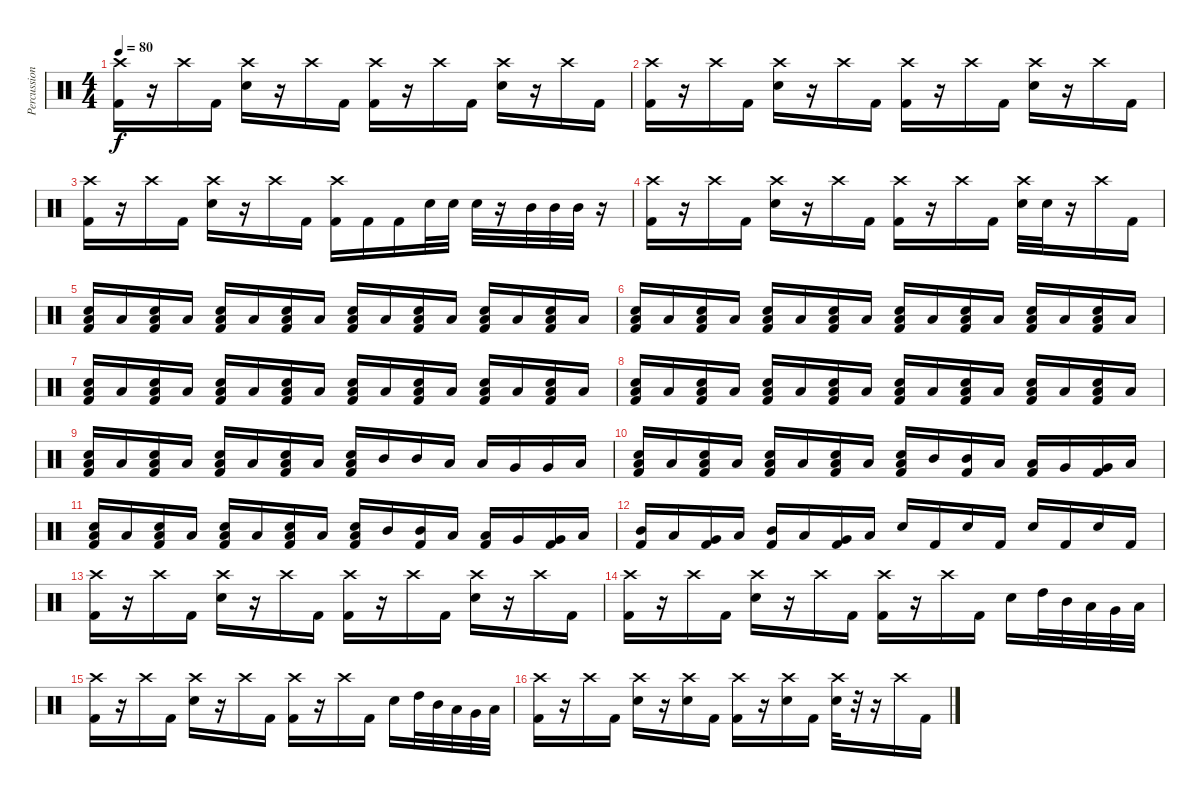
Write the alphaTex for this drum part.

\track ("Percussion" "Percussion") {instrument percussion}
\staff {score}
\articulation defaults
\ts (4 4)
\tempo 80
\clef neutral
\ks c
("Crash high (hit)" "Kick (hit) 2").16{dy f} r.16 "Crash high (hit)".16 "Kick (hit) 2".16 ("Crash high (hit)" "Electric Snare (hit)").16 r.16 "Crash high (hit)".16 "Kick (hit) 2".16 ("Crash high (hit)" "Kick (hit) 2").16 r.16 "Crash high (hit)".16 "Kick (hit) 2".16 ("Crash high (hit)" "Electric Snare (hit)").16 r.16 "Crash high (hit)".16 "Kick (hit) 2".16 |
("Crash high (hit)" "Kick (hit) 2").16 r.16 "Crash high (hit)".16 "Kick (hit) 2".16 ("Crash high (hit)" "Electric Snare (hit)").16 r.16 "Crash high (hit)".16 "Kick (hit) 2".16 ("Crash high (hit)" "Kick (hit) 2").16 r.16 "Crash high (hit)".16 "Kick (hit) 2".16 ("Crash high (hit)" "Electric Snare (hit)").16 r.16 "Crash high (hit)".16 "Kick (hit) 2".16 |
("Crash high (hit)" "Kick (hit) 2").16 r.16 "Crash high (hit)".16 "Kick (hit) 2".16 ("Crash high (hit)" "Electric Snare (hit)").16 r.16 "Crash high (hit)".16 "Kick (hit) 2".16 ("Crash high (hit)" "Kick (hit) 2").16 "Kick (hit) 2".16 "Kick (hit) 2".16 "Electric Snare (hit)".32 "Electric Snare (hit)".32 "Electric Snare (hit)".32 r.16 "Mid Tom (hit)".32 "Mid Tom (hit)".32 "Mid Tom (hit)".32 r.16 |
("Crash high (hit)" "Kick (hit) 2").16 r.16 "Crash high (hit)".16 "Kick (hit) 2".16 ("Crash high (hit)" "Electric Snare (hit)").16 r.16 "Crash high (hit)".16 "Kick (hit) 2".16 ("Crash high (hit)" "Kick (hit) 2").16 r.16 "Crash high (hit)".16 "Kick (hit) 2".16 ("Crash high (hit)" "Electric Snare (hit)").32 "Electric Snare (hit)".32 r.16 "Crash high (hit)".16 "Kick (hit) 2".16 |
("Low Floor Tom (hit)" "Electric Snare (hit)" "Kick (hit) 2").16 "Low Floor Tom (hit)".16 ("Low Floor Tom (hit)" "Electric Snare (hit)" "Kick (hit) 2").16 "Low Floor Tom (hit)".16 ("Low Floor Tom (hit)" "Electric Snare (hit)" "Kick (hit) 2").16 "Low Floor Tom (hit)".16 ("Low Floor Tom (hit)" "Electric Snare (hit)" "Kick (hit) 2").16 "Low Floor Tom (hit)".16 ("Low Floor Tom (hit)" "Electric Snare (hit)" "Kick (hit) 2").16 "Low Floor Tom (hit)".16 ("Low Floor Tom (hit)" "Electric Snare (hit)" "Kick (hit) 2").16 "Low Floor Tom (hit)".16 ("Low Floor Tom (hit)" "Electric Snare (hit)" "Kick (hit) 2").16 "Low Floor Tom (hit)".16 ("Low Floor Tom (hit)" "Electric Snare (hit)" "Kick (hit) 2").16 "Low Floor Tom (hit)".16 |
("Low Floor Tom (hit)" "Electric Snare (hit)" "Kick (hit) 2").16 "Low Floor Tom (hit)".16 ("Low Floor Tom (hit)" "Electric Snare (hit)" "Kick (hit) 2").16 "Low Floor Tom (hit)".16 ("Low Floor Tom (hit)" "Electric Snare (hit)" "Kick (hit) 2").16 "Low Floor Tom (hit)".16 ("Low Floor Tom (hit)" "Electric Snare (hit)" "Kick (hit) 2").16 "Low Floor Tom (hit)".16 ("Low Floor Tom (hit)" "Electric Snare (hit)" "Kick (hit) 2").16 "Low Floor Tom (hit)".16 ("Low Floor Tom (hit)" "Electric Snare (hit)" "Kick (hit) 2").16 "Low Floor Tom (hit)".16 ("Low Floor Tom (hit)" "Electric Snare (hit)" "Kick (hit) 2").16 "Low Floor Tom (hit)".16 ("Low Floor Tom (hit)" "Electric Snare (hit)" "Kick (hit) 2").16 "Low Floor Tom (hit)".16 |
("Low Floor Tom (hit)" "Electric Snare (hit)" "Kick (hit) 2").16 "Low Floor Tom (hit)".16 ("Low Floor Tom (hit)" "Electric Snare (hit)" "Kick (hit) 2").16 "Low Floor Tom (hit)".16 ("Low Floor Tom (hit)" "Electric Snare (hit)" "Kick (hit) 2").16 "Low Floor Tom (hit)".16 ("Low Floor Tom (hit)" "Electric Snare (hit)" "Kick (hit) 2").16 "Low Floor Tom (hit)".16 ("Low Floor Tom (hit)" "Electric Snare (hit)" "Kick (hit) 2").16 "Low Floor Tom (hit)".16 ("Low Floor Tom (hit)" "Electric Snare (hit)" "Kick (hit) 2").16 "Low Floor Tom (hit)".16 ("Low Floor Tom (hit)" "Electric Snare (hit)" "Kick (hit) 2").16 "Low Floor Tom (hit)".16 ("Low Floor Tom (hit)" "Electric Snare (hit)" "Kick (hit) 2").16 "Low Floor Tom (hit)".16 |
("Low Floor Tom (hit)" "Electric Snare (hit)" "Kick (hit) 2").16 "Low Floor Tom (hit)".16 ("Low Floor Tom (hit)" "Electric Snare (hit)" "Kick (hit) 2").16 "Low Floor Tom (hit)".16 ("Low Floor Tom (hit)" "Electric Snare (hit)" "Kick (hit) 2").16 "Low Floor Tom (hit)".16 ("Low Floor Tom (hit)" "Electric Snare (hit)" "Kick (hit) 2").16 "Low Floor Tom (hit)".16 ("Low Floor Tom (hit)" "Electric Snare (hit)" "Kick (hit) 2").16 "Low Floor Tom (hit)".16 ("Low Floor Tom (hit)" "Electric Snare (hit)" "Kick (hit) 2").16 "Low Floor Tom (hit)".16 ("Low Floor Tom (hit)" "Electric Snare (hit)" "Kick (hit) 2").16 "Low Floor Tom (hit)".16 ("Low Floor Tom (hit)" "Electric Snare (hit)" "Kick (hit) 2").16 "Low Floor Tom (hit)".16 |
("Low Floor Tom (hit)" "Electric Snare (hit)" "Kick (hit) 2").16 "Low Floor Tom (hit)".16 ("Low Floor Tom (hit)" "Electric Snare (hit)" "Kick (hit) 2").16 "Low Floor Tom (hit)".16 ("Low Floor Tom (hit)" "Electric Snare (hit)" "Kick (hit) 2").16 "Low Floor Tom (hit)".16 ("Low Floor Tom (hit)" "Electric Snare (hit)" "Kick (hit) 2").16 "Low Floor Tom (hit)".16 ("Low Floor Tom (hit)" "Electric Snare (hit)" "Kick (hit) 2").16 "Mid Tom (hit)".16 "Mid Tom (hit)".16 "Low Tom (hit)".16 "Low Tom (hit)".16 "Very Low Tom (hit)".16 "Very Low Tom (hit)".16 "Low Floor Tom (hit)".16 |
("Low Floor Tom (hit)" "Electric Snare (hit)" "Kick (hit) 2").16 "Low Floor Tom (hit)".16 ("Low Floor Tom (hit)" "Electric Snare (hit)" "Kick (hit) 2").16 "Low Floor Tom (hit)".16 ("Low Floor Tom (hit)" "Electric Snare (hit)" "Kick (hit) 2").16 "Low Floor Tom (hit)".16 ("Low Floor Tom (hit)" "Electric Snare (hit)" "Kick (hit) 2").16 "Low Floor Tom (hit)".16 ("Low Floor Tom (hit)" "Electric Snare (hit)" "Kick (hit) 2").16 "Mid Tom (hit)".16 ("Mid Tom (hit)" "Kick (hit) 2").16 "Low Tom (hit)".16 ("Low Tom (hit)" "Kick (hit) 2").16 "Very Low Tom (hit)".16 ("Very Low Tom (hit)" "Kick (hit) 2").16 "Low Floor Tom (hit)".16 |
("Low Floor Tom (hit)" "Electric Snare (hit)" "Kick (hit) 2").16 "Low Floor Tom (hit)".16 ("Low Floor Tom (hit)" "Electric Snare (hit)" "Kick (hit) 2").16 "Low Floor Tom (hit)".16 ("Low Floor Tom (hit)" "Electric Snare (hit)" "Kick (hit) 2").16 "Low Floor Tom (hit)".16 ("Low Floor Tom (hit)" "Electric Snare (hit)" "Kick (hit) 2").16 "Low Floor Tom (hit)".16 ("Low Floor Tom (hit)" "Electric Snare (hit)" "Kick (hit) 2").16 "Mid Tom (hit)".16 ("Mid Tom (hit)" "Kick (hit) 2").16 "Low Tom (hit)".16 ("Low Tom (hit)" "Kick (hit) 2").16 "Very Low Tom (hit)".16 ("Very Low Tom (hit)" "Kick (hit) 2").16 "Low Floor Tom (hit)".16 |
("Mid Tom (hit)" "Kick (hit) 2").16 "Low Tom (hit)".16 ("Very Low Tom (hit)" "Kick (hit) 2").16 "Low Floor Tom (hit)".16 ("Mid Tom (hit)" "Kick (hit) 2").16 "Low Tom (hit)".16 ("Very Low Tom (hit)" "Kick (hit) 2").16 "Low Floor Tom (hit)".16 "Electric Snare (hit)".16 "Kick (hit) 2".16 "Electric Snare (hit)".16 "Kick (hit) 2".16 "Electric Snare (hit)".16 "Kick (hit) 2".16 "Electric Snare (hit)".16 "Kick (hit) 2".16 |
("Crash high (hit)" "Kick (hit) 2").16 r.16 "Crash high (hit)".16 "Kick (hit) 2".16 ("Crash high (hit)" "Electric Snare (hit)").16 r.16 "Crash high (hit)".16 "Kick (hit) 2".16 ("Crash high (hit)" "Kick (hit) 2").16 r.16 "Crash high (hit)".16 "Kick (hit) 2".16 ("Crash high (hit)" "Electric Snare (hit)").16 r.16 "Crash high (hit)".16 "Kick (hit) 2".16 |
("Crash high (hit)" "Kick (hit) 2").16 r.16 "Crash high (hit)".16 "Kick (hit) 2".16 ("Crash high (hit)" "Electric Snare (hit)").16 r.16 "Crash high (hit)".16 "Kick (hit) 2".16 ("Crash high (hit)" "Kick (hit) 2").16 r.16 "Crash high (hit)".16 "Kick (hit) 2".16 "Electric Snare (hit)".16 "High Tom (hit)".32 "Mid Tom (hit)".32 "Low Tom (hit)".32 "Very Low Tom (hit)".32 "Low Floor Tom (hit)".32 |
("Crash high (hit)" "Kick (hit) 2").16 r.16 "Crash high (hit)".16 "Kick (hit) 2".16 ("Crash high (hit)" "Electric Snare (hit)").16 r.16 "Crash high (hit)".16 "Kick (hit) 2".16 ("Crash high (hit)" "Kick (hit) 2").16 r.16 "Crash high (hit)".16 "Kick (hit) 2".16 "Electric Snare (hit)".16 "High Tom (hit)".32 "Mid Tom (hit)".32 "Low Tom (hit)".32 "Very Low Tom (hit)".32 "Low Floor Tom (hit)".32 |
("Crash high (hit)" "Kick (hit) 2").16 r.16 "Crash high (hit)".16 "Kick (hit) 2".16 ("Crash high (hit)" "Electric Snare (hit)").16 r.16 ("Crash high (hit)" "Electric Snare (hit)").16 "Kick (hit) 2".16 ("Crash high (hit)" "Kick (hit) 2").16 r.16 ("Crash high (hit)" "Electric Snare (hit)").16 "Kick (hit) 2".16 ("Crash high (hit)" "Electric Snare (hit)").32 r.32 r.16 "Crash high (hit)".16 "Kick (hit) 2".16
